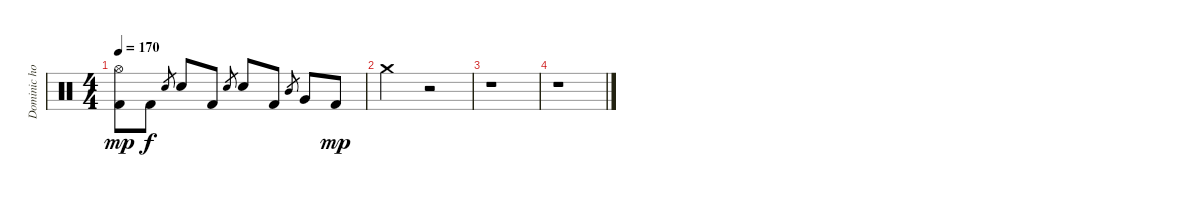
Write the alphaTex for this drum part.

\track ("Dominic howard" "Dominic ho") {instrument percussion}
\staff {score}
\articulation defaults
\ts (4 4)
\tempo 170
\clef neutral
\ks c
("Hi-Hat (open)" "Kick (hit) 2").8{dy mp} "Kick (hit) 2".8{dy f} "Electric Snare (hit)".8{gr} "Electric Snare (hit)".8 "Kick (hit) 2".8 "Electric Snare (hit)".8{gr} "Electric Snare (hit)".8 "Kick (hit) 2".8 "Mid Tom (hit)".8{gr} "Very Low Tom (hit)".8 "Kick (hit) 2".8{dy mp} |
"Crash medium (hit)".2 r.2 |
r.1 |
r.1
